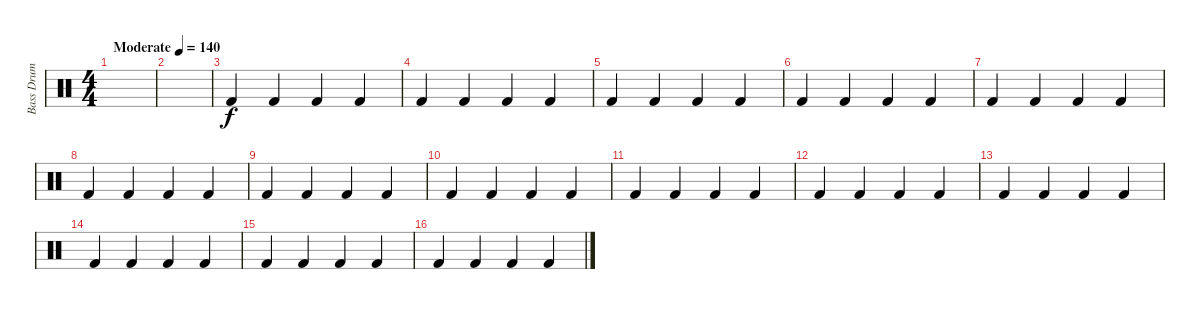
\track ("Bass Drum" "Bass Drum") {instrument percussion}
\staff {score}
\articulation defaults
\ts (4 4)
\tempo (140 "Moderate")
\clef neutral
\ks c
|
|
"Kick (hit) 2".4 "Kick (hit) 2".4 "Kick (hit) 2".4 "Kick (hit) 2".4 |
"Kick (hit) 2".4 "Kick (hit) 2".4 "Kick (hit) 2".4 "Kick (hit) 2".4 |
"Kick (hit) 2".4 "Kick (hit) 2".4 "Kick (hit) 2".4 "Kick (hit) 2".4 |
"Kick (hit) 2".4 "Kick (hit) 2".4 "Kick (hit) 2".4 "Kick (hit) 2".4 |
"Kick (hit) 2".4 "Kick (hit) 2".4 "Kick (hit) 2".4 "Kick (hit) 2".4 |
"Kick (hit) 2".4 "Kick (hit) 2".4 "Kick (hit) 2".4 "Kick (hit) 2".4 |
"Kick (hit) 2".4 "Kick (hit) 2".4 "Kick (hit) 2".4 "Kick (hit) 2".4 |
"Kick (hit) 2".4 "Kick (hit) 2".4 "Kick (hit) 2".4 "Kick (hit) 2".4 |
"Kick (hit) 2".4 "Kick (hit) 2".4 "Kick (hit) 2".4 "Kick (hit) 2".4 |
"Kick (hit) 2".4 "Kick (hit) 2".4 "Kick (hit) 2".4 "Kick (hit) 2".4 |
"Kick (hit) 2".4 "Kick (hit) 2".4 "Kick (hit) 2".4 "Kick (hit) 2".4 |
"Kick (hit) 2".4 "Kick (hit) 2".4 "Kick (hit) 2".4 "Kick (hit) 2".4 |
"Kick (hit) 2".4 "Kick (hit) 2".4 "Kick (hit) 2".4 "Kick (hit) 2".4 |
"Kick (hit) 2".4 "Kick (hit) 2".4 "Kick (hit) 2".4 "Kick (hit) 2".4
